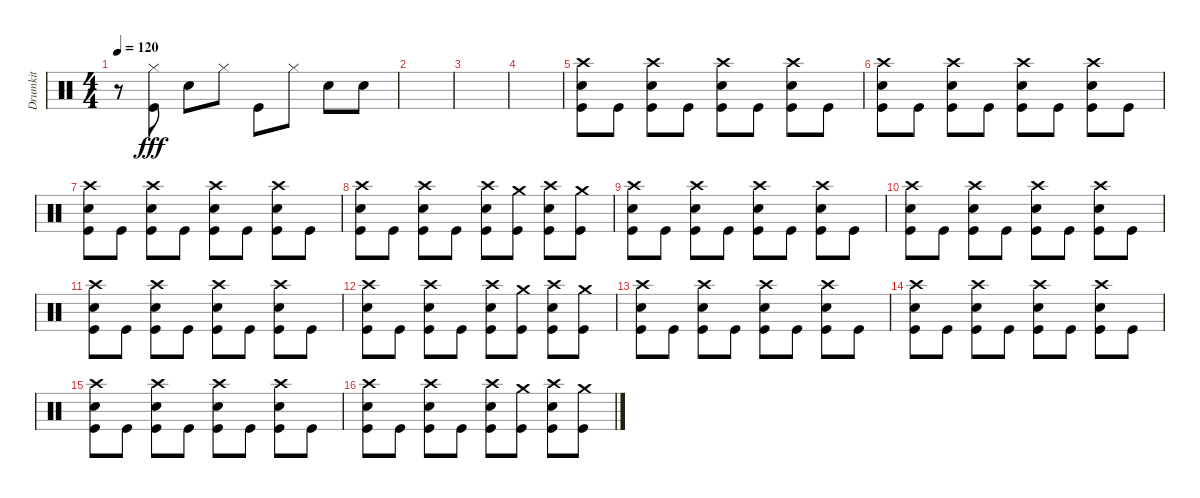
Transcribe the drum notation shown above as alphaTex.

\track ("Drumkit" "Drumkit") {instrument percussion}
\staff {score}
\articulation defaults
\ts (4 4)
\tempo 120
\clef neutral
\ks c
r.8{dy fff} ("Kick (hit)" "Hi-Hat (closed)").8 "Snare (hit) 2".8 "Hi-Hat (closed)".8 "Kick (hit)".8 "Hi-Hat (closed)".8 "Snare (hit) 2".8 "Snare (hit) 2".8 |
|
|
|
("Kick (hit)" "Snare (hit) 2" "Crash high (hit)").8 "Kick (hit)".8 ("Kick (hit)" "Snare (hit) 2" "Crash high (hit)").8 "Kick (hit)".8 ("Kick (hit)" "Snare (hit) 2" "Crash high (hit)").8 "Kick (hit)".8 ("Kick (hit)" "Snare (hit) 2" "Crash high (hit)").8 "Kick (hit)".8 |
("Kick (hit)" "Snare (hit) 2" "Crash high (hit)").8 "Kick (hit)".8 ("Kick (hit)" "Snare (hit) 2" "Crash high (hit)").8 "Kick (hit)".8 ("Kick (hit)" "Snare (hit) 2" "Crash high (hit)").8 "Kick (hit)".8 ("Kick (hit)" "Snare (hit) 2" "Crash high (hit)").8 "Kick (hit)".8 |
("Kick (hit)" "Snare (hit) 2" "Crash high (hit)").8 "Kick (hit)".8 ("Kick (hit)" "Snare (hit) 2" "Crash high (hit)").8 "Kick (hit)".8 ("Kick (hit)" "Snare (hit) 2" "Crash high (hit)").8 "Kick (hit)".8 ("Kick (hit)" "Snare (hit) 2" "Crash high (hit)").8 "Kick (hit)".8 |
("Kick (hit)" "Snare (hit) 2" "Crash high (hit)").8 "Kick (hit)".8 ("Kick (hit)" "Snare (hit) 2" "Crash high (hit)").8 "Kick (hit)".8 ("Kick (hit)" "Snare (hit) 2" "Crash high (hit)").8 ("Kick (hit)" "Crash medium (hit)").8 ("Kick (hit)" "Snare (hit) 2" "Crash high (hit)").8 ("Kick (hit)" "Crash medium (hit)").8 |
("Kick (hit)" "Snare (hit) 2" "Crash high (hit)").8 "Kick (hit)".8 ("Kick (hit)" "Snare (hit) 2" "Crash high (hit)").8 "Kick (hit)".8 ("Kick (hit)" "Snare (hit) 2" "Crash high (hit)").8 "Kick (hit)".8 ("Kick (hit)" "Snare (hit) 2" "Crash high (hit)").8 "Kick (hit)".8 |
("Kick (hit)" "Snare (hit) 2" "Crash high (hit)").8 "Kick (hit)".8 ("Kick (hit)" "Snare (hit) 2" "Crash high (hit)").8 "Kick (hit)".8 ("Kick (hit)" "Snare (hit) 2" "Crash high (hit)").8 "Kick (hit)".8 ("Kick (hit)" "Snare (hit) 2" "Crash high (hit)").8 "Kick (hit)".8 |
("Kick (hit)" "Snare (hit) 2" "Crash high (hit)").8 "Kick (hit)".8 ("Kick (hit)" "Snare (hit) 2" "Crash high (hit)").8 "Kick (hit)".8 ("Kick (hit)" "Snare (hit) 2" "Crash high (hit)").8 "Kick (hit)".8 ("Kick (hit)" "Snare (hit) 2" "Crash high (hit)").8 "Kick (hit)".8 |
("Kick (hit)" "Snare (hit) 2" "Crash high (hit)").8 "Kick (hit)".8 ("Kick (hit)" "Snare (hit) 2" "Crash high (hit)").8 "Kick (hit)".8 ("Kick (hit)" "Snare (hit) 2" "Crash high (hit)").8 ("Kick (hit)" "Crash medium (hit)").8 ("Kick (hit)" "Snare (hit) 2" "Crash high (hit)").8 ("Kick (hit)" "Crash medium (hit)").8 |
("Kick (hit)" "Snare (hit) 2" "Crash high (hit)").8 "Kick (hit)".8 ("Kick (hit)" "Snare (hit) 2" "Crash high (hit)").8 "Kick (hit)".8 ("Kick (hit)" "Snare (hit) 2" "Crash high (hit)").8 "Kick (hit)".8 ("Kick (hit)" "Snare (hit) 2" "Crash high (hit)").8 "Kick (hit)".8 |
("Kick (hit)" "Snare (hit) 2" "Crash high (hit)").8 "Kick (hit)".8 ("Kick (hit)" "Snare (hit) 2" "Crash high (hit)").8 "Kick (hit)".8 ("Kick (hit)" "Snare (hit) 2" "Crash high (hit)").8 "Kick (hit)".8 ("Kick (hit)" "Snare (hit) 2" "Crash high (hit)").8 "Kick (hit)".8 |
("Kick (hit)" "Snare (hit) 2" "Crash high (hit)").8 "Kick (hit)".8 ("Kick (hit)" "Snare (hit) 2" "Crash high (hit)").8 "Kick (hit)".8 ("Kick (hit)" "Snare (hit) 2" "Crash high (hit)").8 "Kick (hit)".8 ("Kick (hit)" "Snare (hit) 2" "Crash high (hit)").8 "Kick (hit)".8 |
("Kick (hit)" "Snare (hit) 2" "Crash high (hit)").8 "Kick (hit)".8 ("Kick (hit)" "Snare (hit) 2" "Crash high (hit)").8 "Kick (hit)".8 ("Kick (hit)" "Snare (hit) 2" "Crash high (hit)").8 ("Kick (hit)" "Crash medium (hit)").8 ("Kick (hit)" "Snare (hit) 2" "Crash high (hit)").8 ("Kick (hit)" "Crash medium (hit)").8
